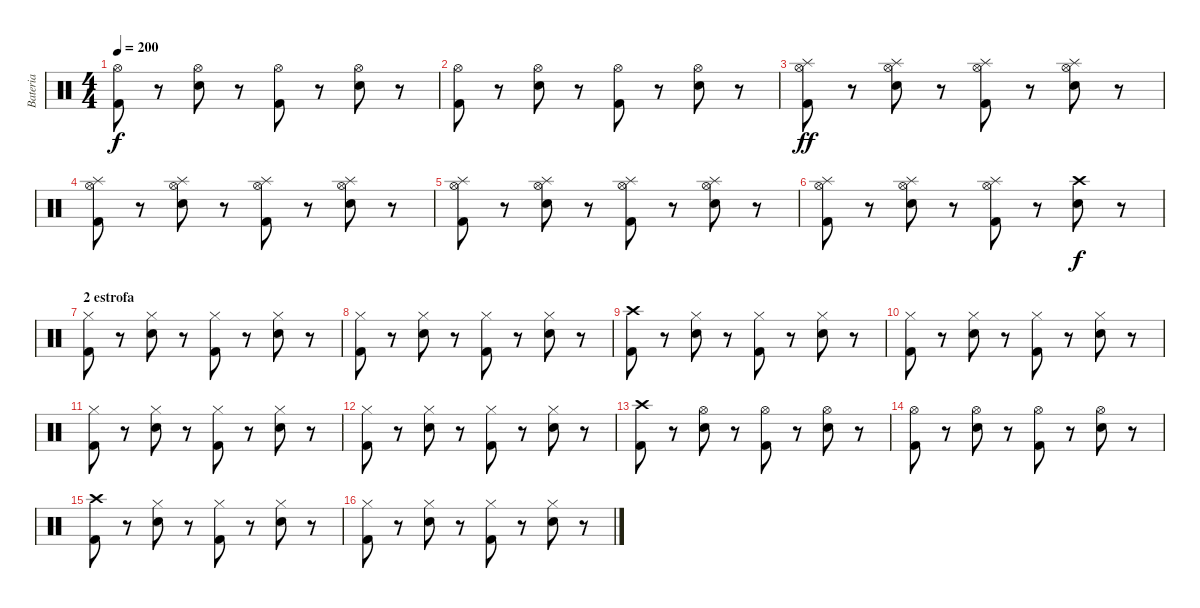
\track ("Bateria" "Bateria") {instrument percussion}
\staff {score}
\articulation defaults
\ts (4 4)
\tempo 200
\clef neutral
\ks c
("Hi-Hat (open)" "Kick (hit) 2").8{dy f} r.8 ("Hi-Hat (open)" "Snare (hit) 2").8 r.8 ("Hi-Hat (open)" "Kick (hit) 2").8 r.8 ("Hi-Hat (open)" "Snare (hit) 2").8 r.8 |
("Hi-Hat (open)" "Kick (hit) 2").8 r.8 ("Hi-Hat (open)" "Snare (hit) 2").8 r.8 ("Hi-Hat (open)" "Kick (hit) 2").8 r.8 ("Hi-Hat (open)" "Snare (hit) 2").8 r.8 |
("Splash (hit)" "Hi-Hat (open)" "Kick (hit) 2").8{dy ff} r.8 ("Splash (hit)" "Hi-Hat (open)" "Snare (hit) 2").8 r.8 ("Splash (hit)" "Hi-Hat (open)" "Kick (hit) 2").8 r.8 ("Splash (hit)" "Hi-Hat (open)" "Snare (hit) 2").8 r.8 |
("Splash (hit)" "Hi-Hat (open)" "Kick (hit) 2").8 r.8 ("Splash (hit)" "Hi-Hat (open)" "Snare (hit) 2").8 r.8 ("Splash (hit)" "Hi-Hat (open)" "Kick (hit) 2").8 r.8 ("Splash (hit)" "Hi-Hat (open)" "Snare (hit) 2").8 r.8 |
("Splash (hit)" "Hi-Hat (open)" "Kick (hit) 2").8 r.8 ("Splash (hit)" "Hi-Hat (open)" "Snare (hit) 2").8 r.8 ("Splash (hit)" "Hi-Hat (open)" "Kick (hit) 2").8 r.8 ("Splash (hit)" "Hi-Hat (open)" "Snare (hit) 2").8 r.8 |
("Splash (hit)" "Hi-Hat (open)" "Kick (hit) 2").8 r.8 ("Splash (hit)" "Hi-Hat (open)" "Snare (hit) 2").8 r.8 ("Splash (hit)" "Hi-Hat (open)" "Kick (hit) 2").8 r.8 ("Crash high (hit)" "Snare (hit) 2").8{dy f} r.8 |
\section ("" "2 estrofa")
("Hi-Hat (closed)" "Kick (hit) 2").8 r.8 ("Hi-Hat (closed)" "Snare (hit) 2").8 r.8 ("Hi-Hat (closed)" "Kick (hit) 2").8 r.8 ("Hi-Hat (closed)" "Snare (hit) 2").8 r.8 |
("Hi-Hat (closed)" "Kick (hit) 2").8 r.8 ("Hi-Hat (closed)" "Snare (hit) 2").8 r.8 ("Hi-Hat (closed)" "Kick (hit) 2").8 r.8 ("Hi-Hat (closed)" "Snare (hit) 2").8 r.8 |
("Crash high (hit)" "Kick (hit) 2").8 r.8 ("Hi-Hat (closed)" "Snare (hit) 2").8 r.8 ("Hi-Hat (closed)" "Kick (hit) 2").8 r.8 ("Hi-Hat (closed)" "Snare (hit) 2").8 r.8 |
("Hi-Hat (closed)" "Kick (hit) 2").8 r.8 ("Hi-Hat (closed)" "Snare (hit) 2").8 r.8 ("Hi-Hat (closed)" "Kick (hit) 2").8 r.8 ("Hi-Hat (closed)" "Snare (hit) 2").8 r.8 |
("Hi-Hat (closed)" "Kick (hit) 2").8 r.8 ("Hi-Hat (closed)" "Snare (hit) 2").8 r.8 ("Hi-Hat (closed)" "Kick (hit) 2").8 r.8 ("Hi-Hat (closed)" "Snare (hit) 2").8 r.8 |
("Hi-Hat (closed)" "Kick (hit) 2").8 r.8 ("Hi-Hat (closed)" "Snare (hit) 2").8 r.8 ("Hi-Hat (closed)" "Kick (hit) 2").8 r.8 ("Hi-Hat (closed)" "Snare (hit) 2").8 r.8 |
("Crash high (hit)" "Kick (hit) 2").8 r.8 ("Hi-Hat (open)" "Snare (hit) 2").8 r.8 ("Hi-Hat (open)" "Kick (hit) 2").8 r.8 ("Hi-Hat (open)" "Snare (hit) 2").8 r.8 |
("Hi-Hat (open)" "Kick (hit) 2").8 r.8 ("Hi-Hat (open)" "Snare (hit) 2").8 r.8 ("Hi-Hat (open)" "Kick (hit) 2").8 r.8 ("Hi-Hat (open)" "Snare (hit) 2").8 r.8 |
("Crash high (hit)" "Kick (hit) 2").8 r.8 ("Hi-Hat (closed)" "Snare (hit) 2").8 r.8 ("Hi-Hat (closed)" "Kick (hit) 2").8 r.8 ("Hi-Hat (closed)" "Snare (hit) 2").8 r.8 |
("Hi-Hat (closed)" "Kick (hit) 2").8 r.8 ("Hi-Hat (closed)" "Snare (hit) 2").8 r.8 ("Hi-Hat (closed)" "Kick (hit) 2").8 r.8 ("Hi-Hat (closed)" "Snare (hit) 2").8 r.8
